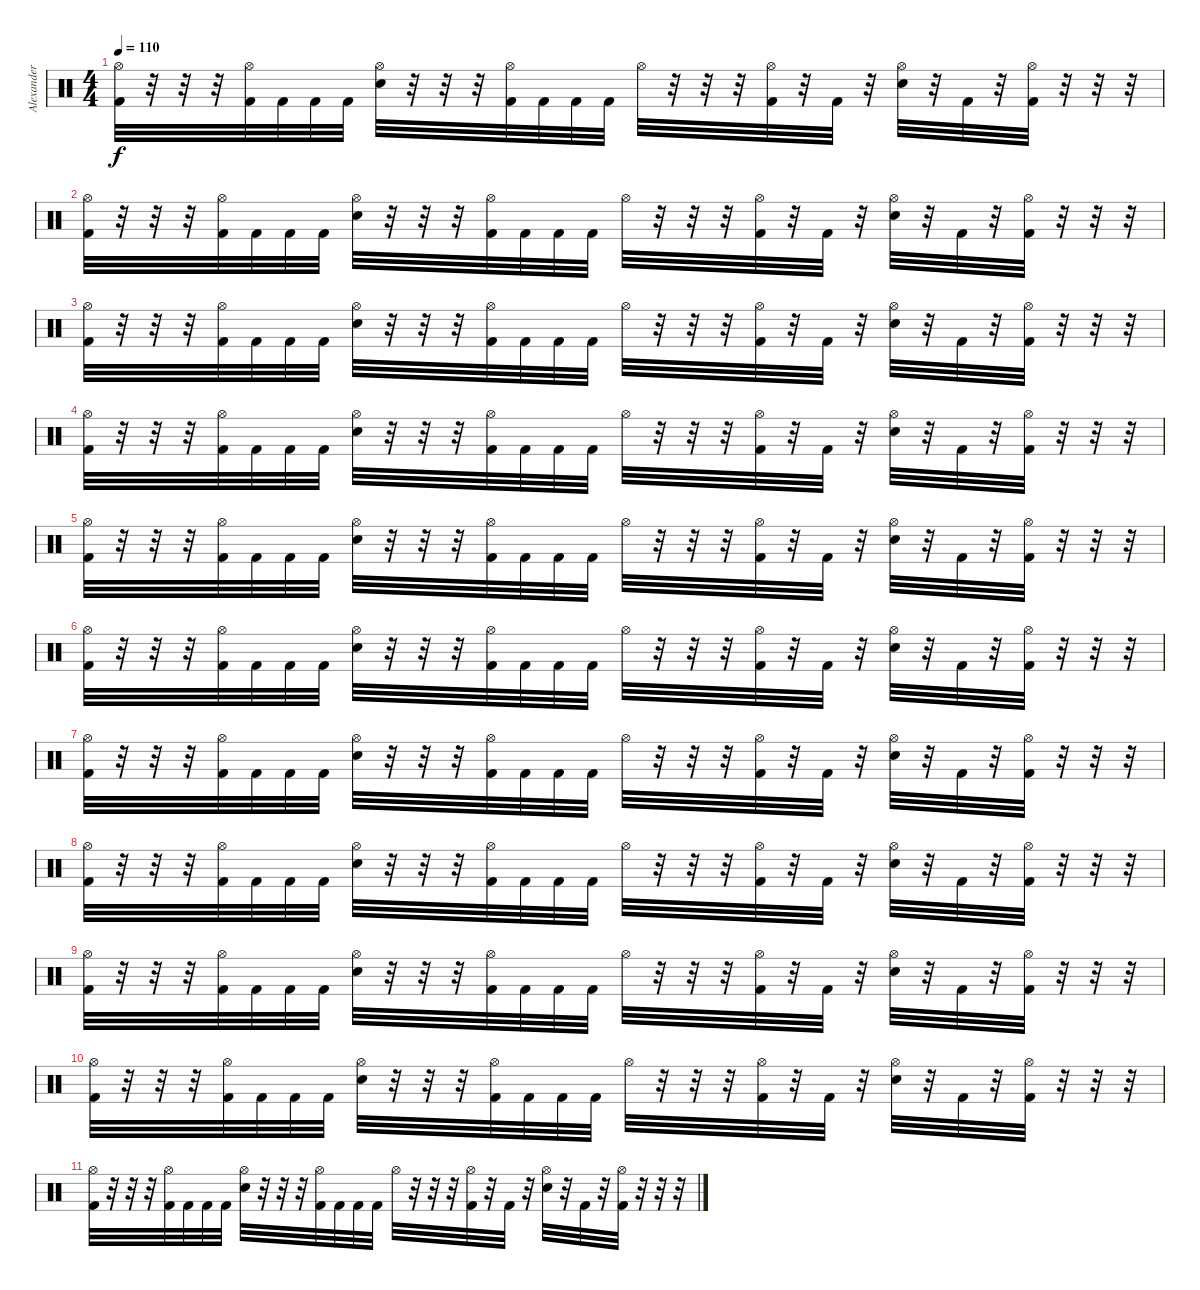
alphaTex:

\track ("Alexander C." "Alexander ") {instrument percussion}
\staff {score}
\articulation defaults
\ts (4 4)
\tempo 110
\clef neutral
\ks c
("Hi-Hat (open)" "Kick (hit) 2").32{dy f} r.32 r.32 r.32 ("Hi-Hat (open)" "Kick (hit) 2").32 "Kick (hit) 2".32 "Kick (hit) 2".32 "Kick (hit) 2".32 ("Hi-Hat (open)" "Snare (hit) 2").32 r.32 r.32 r.32 ("Hi-Hat (open)" "Kick (hit) 2").32 "Kick (hit) 2".32 "Kick (hit) 2".32 "Kick (hit) 2".32 "Hi-Hat (open)".32 r.32 r.32 r.32 ("Hi-Hat (open)" "Kick (hit) 2").32 r.32 "Kick (hit) 2".32 r.32 ("Hi-Hat (open)" "Snare (hit) 2").32 r.32 "Kick (hit) 2".32 r.32 ("Hi-Hat (open)" "Kick (hit) 2").32 r.32 r.32 r.32 |
("Hi-Hat (open)" "Kick (hit) 2").32 r.32 r.32 r.32 ("Hi-Hat (open)" "Kick (hit) 2").32 "Kick (hit) 2".32 "Kick (hit) 2".32 "Kick (hit) 2".32 ("Hi-Hat (open)" "Snare (hit) 2").32 r.32 r.32 r.32 ("Hi-Hat (open)" "Kick (hit) 2").32 "Kick (hit) 2".32 "Kick (hit) 2".32 "Kick (hit) 2".32 "Hi-Hat (open)".32 r.32 r.32 r.32 ("Hi-Hat (open)" "Kick (hit) 2").32 r.32 "Kick (hit) 2".32 r.32 ("Hi-Hat (open)" "Snare (hit) 2").32 r.32 "Kick (hit) 2".32 r.32 ("Hi-Hat (open)" "Kick (hit) 2").32 r.32 r.32 r.32 |
("Hi-Hat (open)" "Kick (hit) 2").32 r.32 r.32 r.32 ("Hi-Hat (open)" "Kick (hit) 2").32 "Kick (hit) 2".32 "Kick (hit) 2".32 "Kick (hit) 2".32 ("Hi-Hat (open)" "Snare (hit) 2").32 r.32 r.32 r.32 ("Hi-Hat (open)" "Kick (hit) 2").32 "Kick (hit) 2".32 "Kick (hit) 2".32 "Kick (hit) 2".32 "Hi-Hat (open)".32 r.32 r.32 r.32 ("Hi-Hat (open)" "Kick (hit) 2").32 r.32 "Kick (hit) 2".32 r.32 ("Hi-Hat (open)" "Snare (hit) 2").32 r.32 "Kick (hit) 2".32 r.32 ("Hi-Hat (open)" "Kick (hit) 2").32 r.32 r.32 r.32 |
("Hi-Hat (open)" "Kick (hit) 2").32 r.32 r.32 r.32 ("Hi-Hat (open)" "Kick (hit) 2").32 "Kick (hit) 2".32 "Kick (hit) 2".32 "Kick (hit) 2".32 ("Hi-Hat (open)" "Snare (hit) 2").32 r.32 r.32 r.32 ("Hi-Hat (open)" "Kick (hit) 2").32 "Kick (hit) 2".32 "Kick (hit) 2".32 "Kick (hit) 2".32 "Hi-Hat (open)".32 r.32 r.32 r.32 ("Hi-Hat (open)" "Kick (hit) 2").32 r.32 "Kick (hit) 2".32 r.32 ("Hi-Hat (open)" "Snare (hit) 2").32 r.32 "Kick (hit) 2".32 r.32 ("Hi-Hat (open)" "Kick (hit) 2").32 r.32 r.32 r.32 |
("Hi-Hat (open)" "Kick (hit) 2").32 r.32 r.32 r.32 ("Hi-Hat (open)" "Kick (hit) 2").32 "Kick (hit) 2".32 "Kick (hit) 2".32 "Kick (hit) 2".32 ("Hi-Hat (open)" "Snare (hit) 2").32 r.32 r.32 r.32 ("Hi-Hat (open)" "Kick (hit) 2").32 "Kick (hit) 2".32 "Kick (hit) 2".32 "Kick (hit) 2".32 "Hi-Hat (open)".32 r.32 r.32 r.32 ("Hi-Hat (open)" "Kick (hit) 2").32 r.32 "Kick (hit) 2".32 r.32 ("Hi-Hat (open)" "Snare (hit) 2").32 r.32 "Kick (hit) 2".32 r.32 ("Hi-Hat (open)" "Kick (hit) 2").32 r.32 r.32 r.32 |
("Hi-Hat (open)" "Kick (hit) 2").32 r.32 r.32 r.32 ("Hi-Hat (open)" "Kick (hit) 2").32 "Kick (hit) 2".32 "Kick (hit) 2".32 "Kick (hit) 2".32 ("Hi-Hat (open)" "Snare (hit) 2").32 r.32 r.32 r.32 ("Hi-Hat (open)" "Kick (hit) 2").32 "Kick (hit) 2".32 "Kick (hit) 2".32 "Kick (hit) 2".32 "Hi-Hat (open)".32 r.32 r.32 r.32 ("Hi-Hat (open)" "Kick (hit) 2").32 r.32 "Kick (hit) 2".32 r.32 ("Hi-Hat (open)" "Snare (hit) 2").32 r.32 "Kick (hit) 2".32 r.32 ("Hi-Hat (open)" "Kick (hit) 2").32 r.32 r.32 r.32 |
("Hi-Hat (open)" "Kick (hit) 2").32 r.32 r.32 r.32 ("Hi-Hat (open)" "Kick (hit) 2").32 "Kick (hit) 2".32 "Kick (hit) 2".32 "Kick (hit) 2".32 ("Hi-Hat (open)" "Snare (hit) 2").32 r.32 r.32 r.32 ("Hi-Hat (open)" "Kick (hit) 2").32 "Kick (hit) 2".32 "Kick (hit) 2".32 "Kick (hit) 2".32 "Hi-Hat (open)".32 r.32 r.32 r.32 ("Hi-Hat (open)" "Kick (hit) 2").32 r.32 "Kick (hit) 2".32 r.32 ("Hi-Hat (open)" "Snare (hit) 2").32 r.32 "Kick (hit) 2".32 r.32 ("Hi-Hat (open)" "Kick (hit) 2").32 r.32 r.32 r.32 |
("Hi-Hat (open)" "Kick (hit) 2").32 r.32 r.32 r.32 ("Hi-Hat (open)" "Kick (hit) 2").32 "Kick (hit) 2".32 "Kick (hit) 2".32 "Kick (hit) 2".32 ("Hi-Hat (open)" "Snare (hit) 2").32 r.32 r.32 r.32 ("Hi-Hat (open)" "Kick (hit) 2").32 "Kick (hit) 2".32 "Kick (hit) 2".32 "Kick (hit) 2".32 "Hi-Hat (open)".32 r.32 r.32 r.32 ("Hi-Hat (open)" "Kick (hit) 2").32 r.32 "Kick (hit) 2".32 r.32 ("Hi-Hat (open)" "Snare (hit) 2").32 r.32 "Kick (hit) 2".32 r.32 ("Hi-Hat (open)" "Kick (hit) 2").32 r.32 r.32 r.32 |
("Hi-Hat (open)" "Kick (hit) 2").32 r.32 r.32 r.32 ("Hi-Hat (open)" "Kick (hit) 2").32 "Kick (hit) 2".32 "Kick (hit) 2".32 "Kick (hit) 2".32 ("Hi-Hat (open)" "Snare (hit) 2").32 r.32 r.32 r.32 ("Hi-Hat (open)" "Kick (hit) 2").32 "Kick (hit) 2".32 "Kick (hit) 2".32 "Kick (hit) 2".32 "Hi-Hat (open)".32 r.32 r.32 r.32 ("Hi-Hat (open)" "Kick (hit) 2").32 r.32 "Kick (hit) 2".32 r.32 ("Hi-Hat (open)" "Snare (hit) 2").32 r.32 "Kick (hit) 2".32 r.32 ("Hi-Hat (open)" "Kick (hit) 2").32 r.32 r.32 r.32 |
("Hi-Hat (open)" "Kick (hit) 2").32 r.32 r.32 r.32 ("Hi-Hat (open)" "Kick (hit) 2").32 "Kick (hit) 2".32 "Kick (hit) 2".32 "Kick (hit) 2".32 ("Hi-Hat (open)" "Snare (hit) 2").32 r.32 r.32 r.32 ("Hi-Hat (open)" "Kick (hit) 2").32 "Kick (hit) 2".32 "Kick (hit) 2".32 "Kick (hit) 2".32 "Hi-Hat (open)".32 r.32 r.32 r.32 ("Hi-Hat (open)" "Kick (hit) 2").32 r.32 "Kick (hit) 2".32 r.32 ("Hi-Hat (open)" "Snare (hit) 2").32 r.32 "Kick (hit) 2".32 r.32 ("Hi-Hat (open)" "Kick (hit) 2").32 r.32 r.32 r.32 |
("Hi-Hat (open)" "Kick (hit) 2").32 r.32 r.32 r.32 ("Hi-Hat (open)" "Kick (hit) 2").32 "Kick (hit) 2".32 "Kick (hit) 2".32 "Kick (hit) 2".32 ("Hi-Hat (open)" "Snare (hit) 2").32 r.32 r.32 r.32 ("Hi-Hat (open)" "Kick (hit) 2").32 "Kick (hit) 2".32 "Kick (hit) 2".32 "Kick (hit) 2".32 "Hi-Hat (open)".32 r.32 r.32 r.32 ("Hi-Hat (open)" "Kick (hit) 2").32 r.32 "Kick (hit) 2".32 r.32 ("Hi-Hat (open)" "Snare (hit) 2").32 r.32 "Kick (hit) 2".32 r.32 ("Hi-Hat (open)" "Kick (hit) 2").32 r.32 r.32 r.32
